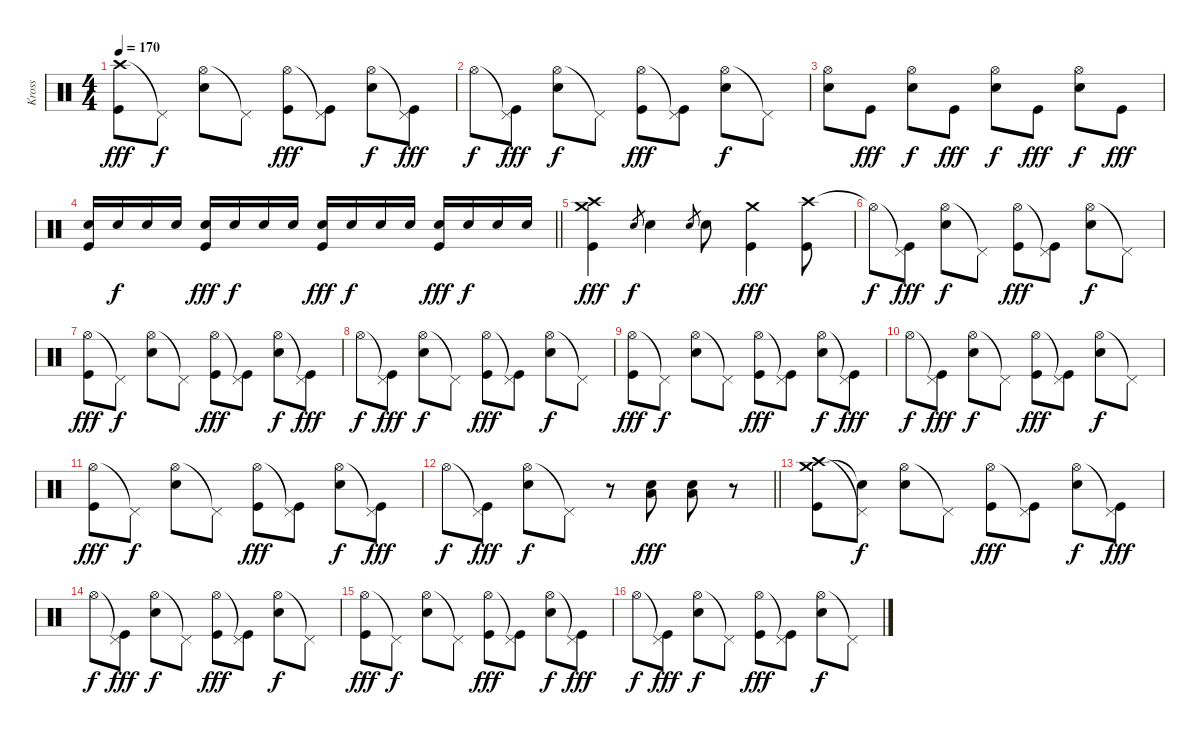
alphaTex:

\track ("Kross" "Kross") {instrument percussion}
\staff {score}
\articulation defaults
\ts (4 4)
\tempo 170
\clef neutral
\ks c
("Crash high (hit)" "Kick (hit)").8{dy fff} "Pedal Hi-Hat (hit)"{t}.8{dy f} ("Hi-Hat (open)" "Electric Snare (hit)").8 "Pedal Hi-Hat (hit)"{t}.8 ("Hi-Hat (open)" "Kick (hit)").8{dy fff} ("Pedal Hi-Hat (hit)"{t} "Kick (hit)").8 ("Hi-Hat (open)" "Electric Snare (hit)").8{dy f} ("Pedal Hi-Hat (hit)"{t} "Kick (hit)").8{dy fff} |
"Hi-Hat (open)".8{dy f} ("Pedal Hi-Hat (hit)"{t} "Kick (hit)").8{dy fff} ("Hi-Hat (open)" "Electric Snare (hit)").8{dy f} "Pedal Hi-Hat (hit)"{t}.8 ("Hi-Hat (open)" "Kick (hit)").8{dy fff} ("Pedal Hi-Hat (hit)"{t} "Kick (hit)").8 ("Hi-Hat (open)" "Electric Snare (hit)").8{dy f} "Pedal Hi-Hat (hit)"{t}.8 |
("Hi-Hat (open)" "Electric Snare (hit)").8 "Kick (hit)".8{dy fff} ("Hi-Hat (open)" "Electric Snare (hit)").8{dy f} "Kick (hit)".8{dy fff} ("Hi-Hat (open)" "Electric Snare (hit)").8{dy f} "Kick (hit)".8{dy fff} ("Hi-Hat (open)" "Electric Snare (hit)").8{dy f} "Kick (hit)".8{dy fff} |
\barLineRight lightlight
("Electric Snare (hit)" "Kick (hit)").16 "Electric Snare (hit)".16{dy f} "Electric Snare (hit)".16 "Electric Snare (hit)".16 ("Electric Snare (hit)" "Kick (hit)").16{dy fff} "Electric Snare (hit)".16{dy f} "Electric Snare (hit)".16 "Electric Snare (hit)".16 ("Electric Snare (hit)" "Kick (hit)").16{dy fff} "Electric Snare (hit)".16{dy f} "Electric Snare (hit)".16 "Electric Snare (hit)".16 ("Electric Snare (hit)" "Kick (hit)").16{dy fff} "Electric Snare (hit)".16{dy f} "Electric Snare (hit)".16 "Electric Snare (hit)".16 |
("Crash high (hit)" "Crash medium (hit)" "Kick (hit)").4{dy fff} "Electric Snare (hit)".8{gr dy f} "Electric Snare (hit)".4 "Electric Snare (hit)".8{gr} "Electric Snare (hit)".8 ("Crash medium (hit)" "Kick (hit)").4{dy fff} ("Crash high (hit)" "Kick (hit)").8 |
"Hi-Hat (open)"{t}.8{dy f} ("Pedal Hi-Hat (hit)"{t} "Kick (hit)").8{dy fff} ("Hi-Hat (open)" "Electric Snare (hit)").8{dy f} "Pedal Hi-Hat (hit)"{t}.8 ("Hi-Hat (open)" "Kick (hit)").8{dy fff} ("Pedal Hi-Hat (hit)"{t} "Kick (hit)").8 ("Hi-Hat (open)" "Electric Snare (hit)").8{dy f} "Pedal Hi-Hat (hit)"{t}.8 |
("Hi-Hat (open)" "Kick (hit)").8{dy fff} "Pedal Hi-Hat (hit)"{t}.8{dy f} ("Hi-Hat (open)" "Electric Snare (hit)").8 "Pedal Hi-Hat (hit)"{t}.8 ("Hi-Hat (open)" "Kick (hit)").8{dy fff} ("Pedal Hi-Hat (hit)"{t} "Kick (hit)").8 ("Hi-Hat (open)" "Electric Snare (hit)").8{dy f} ("Pedal Hi-Hat (hit)"{t} "Kick (hit)").8{dy fff} |
"Hi-Hat (open)".8{dy f} ("Pedal Hi-Hat (hit)"{t} "Kick (hit)").8{dy fff} ("Hi-Hat (open)" "Electric Snare (hit)").8{dy f} "Pedal Hi-Hat (hit)"{t}.8 ("Hi-Hat (open)" "Kick (hit)").8{dy fff} ("Pedal Hi-Hat (hit)"{t} "Kick (hit)").8 ("Hi-Hat (open)" "Electric Snare (hit)").8{dy f} "Pedal Hi-Hat (hit)"{t}.8 |
("Hi-Hat (open)" "Kick (hit)").8{dy fff} "Pedal Hi-Hat (hit)"{t}.8{dy f} ("Hi-Hat (open)" "Electric Snare (hit)").8 "Pedal Hi-Hat (hit)"{t}.8 ("Hi-Hat (open)" "Kick (hit)").8{dy fff} ("Pedal Hi-Hat (hit)"{t} "Kick (hit)").8 ("Hi-Hat (open)" "Electric Snare (hit)").8{dy f} ("Pedal Hi-Hat (hit)"{t} "Kick (hit)").8{dy fff} |
"Hi-Hat (open)".8{dy f} ("Pedal Hi-Hat (hit)"{t} "Kick (hit)").8{dy fff} ("Hi-Hat (open)" "Electric Snare (hit)").8{dy f} "Pedal Hi-Hat (hit)"{t}.8 ("Hi-Hat (open)" "Kick (hit)").8{dy fff} ("Pedal Hi-Hat (hit)"{t} "Kick (hit)").8 ("Hi-Hat (open)" "Electric Snare (hit)").8{dy f} "Pedal Hi-Hat (hit)"{t}.8 |
("Hi-Hat (open)" "Kick (hit)").8{dy fff} "Pedal Hi-Hat (hit)"{t}.8{dy f} ("Hi-Hat (open)" "Electric Snare (hit)").8 "Pedal Hi-Hat (hit)"{t}.8 ("Hi-Hat (open)" "Kick (hit)").8{dy fff} ("Pedal Hi-Hat (hit)"{t} "Kick (hit)").8 ("Hi-Hat (open)" "Electric Snare (hit)").8{dy f} ("Pedal Hi-Hat (hit)"{t} "Kick (hit)").8{dy fff} |
\barLineRight lightlight "Hi-Hat (open)".8{dy f}
("Pedal Hi-Hat (hit)"{t} "Kick (hit)").8{dy fff} ("Hi-Hat (open)" "Electric Snare (hit)").8{dy f} "Pedal Hi-Hat (hit)"{t}.8 r.8 ("Low Floor Tom (hit)" "Electric Snare (hit)").8{dy fff} ("Low Floor Tom (hit)" "Electric Snare (hit)").8 r.8 |
("Crash high (hit)" "Crash medium (hit)" "Kick (hit)").8 ("Pedal Hi-Hat (hit)"{t} "Snare (hit)"{t}).8{dy f} ("Hi-Hat (open)" "Electric Snare (hit)").8 "Pedal Hi-Hat (hit)"{t}.8 ("Hi-Hat (open)" "Kick (hit)").8{dy fff} ("Pedal Hi-Hat (hit)"{t} "Kick (hit)").8 ("Hi-Hat (open)" "Electric Snare (hit)").8{dy f} ("Pedal Hi-Hat (hit)"{t} "Kick (hit)").8{dy fff} |
"Hi-Hat (open)".8{dy f} ("Pedal Hi-Hat (hit)"{t} "Kick (hit)").8{dy fff} ("Hi-Hat (open)" "Electric Snare (hit)").8{dy f} "Pedal Hi-Hat (hit)"{t}.8 ("Hi-Hat (open)" "Kick (hit)").8{dy fff} ("Pedal Hi-Hat (hit)"{t} "Kick (hit)").8 ("Hi-Hat (open)" "Electric Snare (hit)").8{dy f} "Pedal Hi-Hat (hit)"{t}.8 |
("Hi-Hat (open)" "Kick (hit)").8{dy fff} "Pedal Hi-Hat (hit)"{t}.8{dy f} ("Hi-Hat (open)" "Electric Snare (hit)").8 "Pedal Hi-Hat (hit)"{t}.8 ("Hi-Hat (open)" "Kick (hit)").8{dy fff} ("Pedal Hi-Hat (hit)"{t} "Kick (hit)").8 ("Hi-Hat (open)" "Electric Snare (hit)").8{dy f} ("Pedal Hi-Hat (hit)"{t} "Kick (hit)").8{dy fff} |
"Hi-Hat (open)".8{dy f} ("Pedal Hi-Hat (hit)"{t} "Kick (hit)").8{dy fff} ("Hi-Hat (open)" "Electric Snare (hit)").8{dy f} "Pedal Hi-Hat (hit)"{t}.8 ("Hi-Hat (open)" "Kick (hit)").8{dy fff} ("Pedal Hi-Hat (hit)"{t} "Kick (hit)").8 ("Hi-Hat (open)" "Electric Snare (hit)").8{dy f} "Pedal Hi-Hat (hit)"{t}.8
